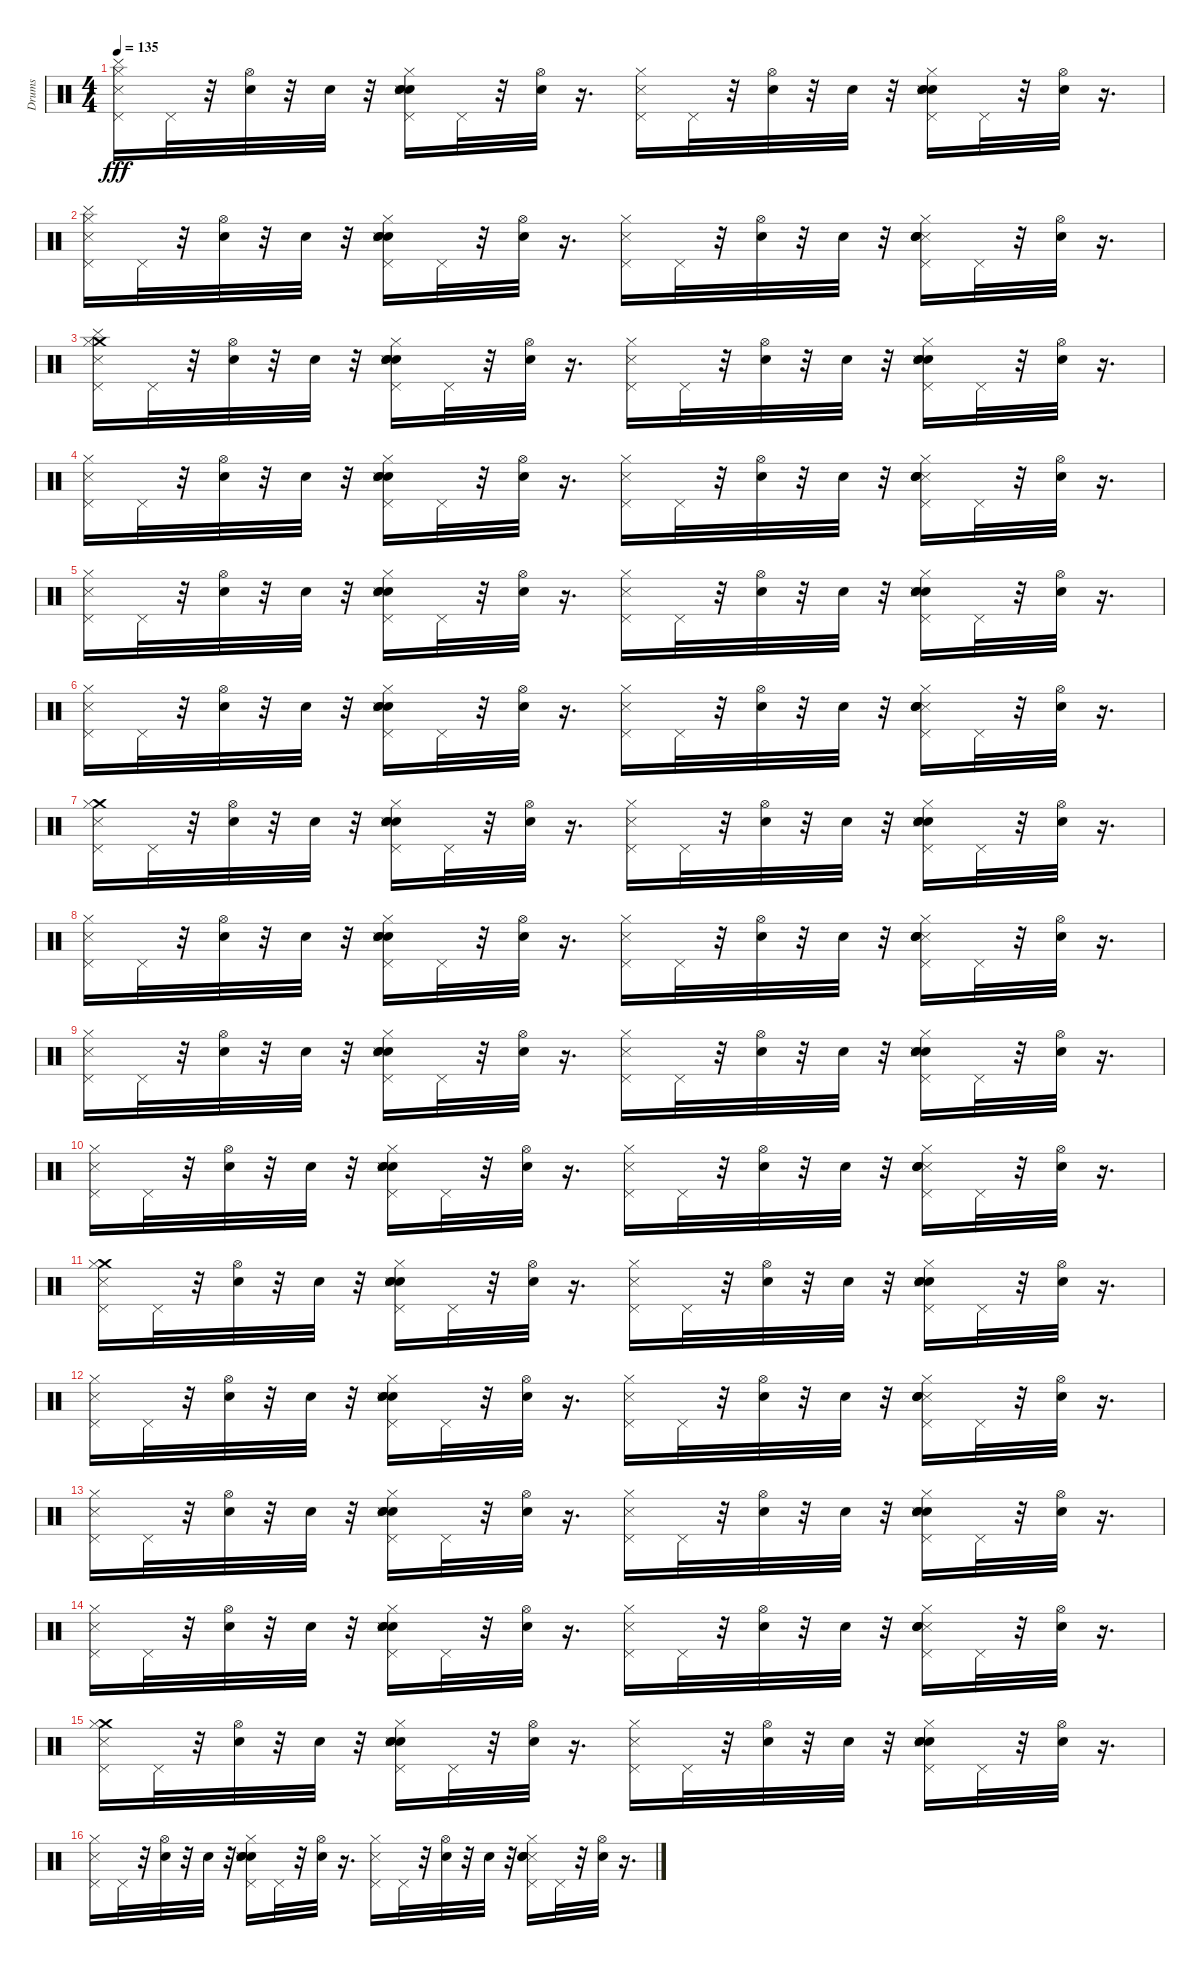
\track ("Drums" "Drums") {instrument percussion}
\staff {score}
\articulation defaults
\ts (4 4)
\tempo 135
\clef neutral
\ks c
("Cymbal (hit)" "Pedal Hi-Hat (hit)" "Hi-Hat (closed)" "Metronome (hit)").16{dy fff} "Pedal Hi-Hat (hit)".32 r.32 ("Snare (hit)" "Hi-Hat (open)").32 r.32 "Snare (hit)".32 r.32 ("Electric Snare (hit)" "Snare (hit)" "Metronome (hit)" "Hand Clap (hit)" "Pedal Hi-Hat (hit)" "Hi-Hat (closed)").16 "Pedal Hi-Hat (hit)".32 r.32 ("Snare (hit)" "Hi-Hat (open)").32 r.16{d} ("Pedal Hi-Hat (hit)" "Hi-Hat (closed)" "Metronome (hit)").16 "Pedal Hi-Hat (hit)".32 r.32 ("Snare (hit)" "Hi-Hat (open)").32 r.32 "Snare (hit)".32 r.32 ("Hi-Hat (closed)" "Snare (hit)" "Electric Snare (hit)" "Pedal Hi-Hat (hit)" "Metronome (hit)" "Hand Clap (hit)").16 "Pedal Hi-Hat (hit)".32 r.32 ("Hi-Hat (open)" "Snare (hit)").32 r.16{d} |
("Cymbal (hit)" "Metronome (hit)" "Pedal Hi-Hat (hit)" "Hi-Hat (closed)").16 "Pedal Hi-Hat (hit)".32 r.32 ("Hi-Hat (open)" "Snare (hit)").32 r.32 "Snare (hit)".32 r.32 ("Electric Snare (hit)" "Hand Clap (hit)" "Hi-Hat (closed)" "Snare (hit)" "Metronome (hit)" "Pedal Hi-Hat (hit)").16 "Pedal Hi-Hat (hit)".32 r.32 ("Hi-Hat (open)" "Snare (hit)").32 r.16{d} ("Metronome (hit)" "Pedal Hi-Hat (hit)" "Hi-Hat (closed)").16 "Pedal Hi-Hat (hit)".32 r.32 ("Hi-Hat (open)" "Snare (hit)").32 r.32 "Snare (hit)".32 r.32 ("Metronome (hit)" "Hi-Hat (closed)" "Hand Clap (hit)" "Pedal Hi-Hat (hit)" "Snare (hit)" "Electric Snare (hit)").16 "Pedal Hi-Hat (hit)".32 r.32 ("Hi-Hat (open)" "Snare (hit)").32 r.16{d} |
("Cymbal (hit)" "Crash medium (hit)" "Pedal Hi-Hat (hit)" "Hi-Hat (closed)" "Metronome (hit)").16 "Pedal Hi-Hat (hit)".32 r.32 ("Hi-Hat (open)" "Snare (hit)").32 r.32 "Snare (hit)".32 r.32 ("Electric Snare (hit)" "Hand Clap (hit)" "Hi-Hat (closed)" "Snare (hit)" "Metronome (hit)" "Pedal Hi-Hat (hit)").16 "Pedal Hi-Hat (hit)".32 r.32 ("Snare (hit)" "Hi-Hat (open)").32 r.16{d} ("Pedal Hi-Hat (hit)" "Hi-Hat (closed)" "Metronome (hit)").16 "Pedal Hi-Hat (hit)".32 r.32 ("Snare (hit)" "Hi-Hat (open)").32 r.32 "Snare (hit)".32 r.32 ("Hi-Hat (closed)" "Electric Snare (hit)" "Snare (hit)" "Pedal Hi-Hat (hit)" "Metronome (hit)" "Hand Clap (hit)").16 "Pedal Hi-Hat (hit)".32 r.32 ("Snare (hit)" "Hi-Hat (open)").32 r.16{d} |
("Pedal Hi-Hat (hit)" "Hi-Hat (closed)" "Metronome (hit)").16 "Pedal Hi-Hat (hit)".32 r.32 ("Hi-Hat (open)" "Snare (hit)").32 r.32 "Snare (hit)".32 r.32 ("Hand Clap (hit)" "Snare (hit)" "Hi-Hat (closed)" "Pedal Hi-Hat (hit)" "Metronome (hit)" "Electric Snare (hit)").16 "Pedal Hi-Hat (hit)".32 r.32 ("Hi-Hat (open)" "Snare (hit)").32 r.16{d} ("Metronome (hit)" "Pedal Hi-Hat (hit)" "Hi-Hat (closed)").16 "Pedal Hi-Hat (hit)".32 r.32 ("Hi-Hat (open)" "Snare (hit)").32 r.32 "Snare (hit)".32 r.32 ("Metronome (hit)" "Hi-Hat (closed)" "Hand Clap (hit)" "Pedal Hi-Hat (hit)" "Snare (hit)" "Electric Snare (hit)").16 "Pedal Hi-Hat (hit)".32 r.32 ("Hi-Hat (open)" "Snare (hit)").32 r.16{d} |
("Pedal Hi-Hat (hit)" "Hi-Hat (closed)" "Metronome (hit)").16 "Pedal Hi-Hat (hit)".32 r.32 ("Snare (hit)" "Hi-Hat (open)").32 r.32 "Snare (hit)".32 r.32 ("Electric Snare (hit)" "Snare (hit)" "Metronome (hit)" "Hand Clap (hit)" "Pedal Hi-Hat (hit)" "Hi-Hat (closed)").16 "Pedal Hi-Hat (hit)".32 r.32 ("Snare (hit)" "Hi-Hat (open)").32 r.16{d} ("Pedal Hi-Hat (hit)" "Hi-Hat (closed)" "Metronome (hit)").16 "Pedal Hi-Hat (hit)".32 r.32 ("Snare (hit)" "Hi-Hat (open)").32 r.32 "Snare (hit)".32 r.32 ("Hi-Hat (closed)" "Snare (hit)" "Electric Snare (hit)" "Pedal Hi-Hat (hit)" "Metronome (hit)" "Hand Clap (hit)").16 "Pedal Hi-Hat (hit)".32 r.32 ("Hi-Hat (open)" "Snare (hit)").32 r.16{d} |
("Metronome (hit)" "Pedal Hi-Hat (hit)" "Hi-Hat (closed)").16 "Pedal Hi-Hat (hit)".32 r.32 ("Hi-Hat (open)" "Snare (hit)").32 r.32 "Snare (hit)".32 r.32 ("Electric Snare (hit)" "Hand Clap (hit)" "Hi-Hat (closed)" "Snare (hit)" "Metronome (hit)" "Pedal Hi-Hat (hit)").16 "Pedal Hi-Hat (hit)".32 r.32 ("Hi-Hat (open)" "Snare (hit)").32 r.16{d} ("Metronome (hit)" "Pedal Hi-Hat (hit)" "Hi-Hat (closed)").16 "Pedal Hi-Hat (hit)".32 r.32 ("Hi-Hat (open)" "Snare (hit)").32 r.32 "Snare (hit)".32 r.32 ("Metronome (hit)" "Hi-Hat (closed)" "Hand Clap (hit)" "Pedal Hi-Hat (hit)" "Snare (hit)" "Electric Snare (hit)").16 "Pedal Hi-Hat (hit)".32 r.32 ("Hi-Hat (open)" "Snare (hit)").32 r.16{d} |
("Crash medium (hit)" "Pedal Hi-Hat (hit)" "Hi-Hat (closed)" "Metronome (hit)").16 "Pedal Hi-Hat (hit)".32 r.32 ("Hi-Hat (open)" "Snare (hit)").32 r.32 "Snare (hit)".32 r.32 ("Electric Snare (hit)" "Hand Clap (hit)" "Hi-Hat (closed)" "Snare (hit)" "Metronome (hit)" "Pedal Hi-Hat (hit)").16 "Pedal Hi-Hat (hit)".32 r.32 ("Snare (hit)" "Hi-Hat (open)").32 r.16{d} ("Pedal Hi-Hat (hit)" "Hi-Hat (closed)" "Metronome (hit)").16 "Pedal Hi-Hat (hit)".32 r.32 ("Snare (hit)" "Hi-Hat (open)").32 r.32 "Snare (hit)".32 r.32 ("Hi-Hat (closed)" "Electric Snare (hit)" "Snare (hit)" "Pedal Hi-Hat (hit)" "Metronome (hit)" "Hand Clap (hit)").16 "Pedal Hi-Hat (hit)".32 r.32 ("Snare (hit)" "Hi-Hat (open)").32 r.16{d} |
("Pedal Hi-Hat (hit)" "Hi-Hat (closed)" "Metronome (hit)").16 "Pedal Hi-Hat (hit)".32 r.32 ("Hi-Hat (open)" "Snare (hit)").32 r.32 "Snare (hit)".32 r.32 ("Hand Clap (hit)" "Snare (hit)" "Hi-Hat (closed)" "Pedal Hi-Hat (hit)" "Metronome (hit)" "Electric Snare (hit)").16 "Pedal Hi-Hat (hit)".32 r.32 ("Hi-Hat (open)" "Snare (hit)").32 r.16{d} ("Metronome (hit)" "Pedal Hi-Hat (hit)" "Hi-Hat (closed)").16 "Pedal Hi-Hat (hit)".32 r.32 ("Hi-Hat (open)" "Snare (hit)").32 r.32 "Snare (hit)".32 r.32 ("Metronome (hit)" "Hi-Hat (closed)" "Hand Clap (hit)" "Pedal Hi-Hat (hit)" "Snare (hit)" "Electric Snare (hit)").16 "Pedal Hi-Hat (hit)".32 r.32 ("Hi-Hat (open)" "Snare (hit)").32 r.16{d} |
("Pedal Hi-Hat (hit)" "Hi-Hat (closed)" "Metronome (hit)").16 "Pedal Hi-Hat (hit)".32 r.32 ("Snare (hit)" "Hi-Hat (open)").32 r.32 "Snare (hit)".32 r.32 ("Electric Snare (hit)" "Snare (hit)" "Metronome (hit)" "Hand Clap (hit)" "Pedal Hi-Hat (hit)" "Hi-Hat (closed)").16 "Pedal Hi-Hat (hit)".32 r.32 ("Snare (hit)" "Hi-Hat (open)").32 r.16{d} ("Pedal Hi-Hat (hit)" "Hi-Hat (closed)" "Metronome (hit)").16 "Pedal Hi-Hat (hit)".32 r.32 ("Snare (hit)" "Hi-Hat (open)").32 r.32 "Snare (hit)".32 r.32 ("Hi-Hat (closed)" "Snare (hit)" "Electric Snare (hit)" "Pedal Hi-Hat (hit)" "Metronome (hit)" "Hand Clap (hit)").16 "Pedal Hi-Hat (hit)".32 r.32 ("Hi-Hat (open)" "Snare (hit)").32 r.16{d} |
("Metronome (hit)" "Pedal Hi-Hat (hit)" "Hi-Hat (closed)").16 "Pedal Hi-Hat (hit)".32 r.32 ("Hi-Hat (open)" "Snare (hit)").32 r.32 "Snare (hit)".32 r.32 ("Electric Snare (hit)" "Hand Clap (hit)" "Hi-Hat (closed)" "Snare (hit)" "Metronome (hit)" "Pedal Hi-Hat (hit)").16 "Pedal Hi-Hat (hit)".32 r.32 ("Hi-Hat (open)" "Snare (hit)").32 r.16{d} ("Metronome (hit)" "Pedal Hi-Hat (hit)" "Hi-Hat (closed)").16 "Pedal Hi-Hat (hit)".32 r.32 ("Hi-Hat (open)" "Snare (hit)").32 r.32 "Snare (hit)".32 r.32 ("Metronome (hit)" "Hi-Hat (closed)" "Hand Clap (hit)" "Pedal Hi-Hat (hit)" "Snare (hit)" "Electric Snare (hit)").16 "Pedal Hi-Hat (hit)".32 r.32 ("Hi-Hat (open)" "Snare (hit)").32 r.16{d} |
("Crash medium (hit)" "Pedal Hi-Hat (hit)" "Hi-Hat (closed)" "Metronome (hit)").16 "Pedal Hi-Hat (hit)".32 r.32 ("Hi-Hat (open)" "Snare (hit)").32 r.32 "Snare (hit)".32 r.32 ("Electric Snare (hit)" "Hand Clap (hit)" "Hi-Hat (closed)" "Snare (hit)" "Metronome (hit)" "Pedal Hi-Hat (hit)").16 "Pedal Hi-Hat (hit)".32 r.32 ("Snare (hit)" "Hi-Hat (open)").32 r.16{d} ("Pedal Hi-Hat (hit)" "Hi-Hat (closed)" "Metronome (hit)").16 "Pedal Hi-Hat (hit)".32 r.32 ("Snare (hit)" "Hi-Hat (open)").32 r.32 "Snare (hit)".32 r.32 ("Hi-Hat (closed)" "Electric Snare (hit)" "Snare (hit)" "Pedal Hi-Hat (hit)" "Metronome (hit)" "Hand Clap (hit)").16 "Pedal Hi-Hat (hit)".32 r.32 ("Snare (hit)" "Hi-Hat (open)").32 r.16{d} |
("Pedal Hi-Hat (hit)" "Hi-Hat (closed)" "Metronome (hit)").16 "Pedal Hi-Hat (hit)".32 r.32 ("Hi-Hat (open)" "Snare (hit)").32 r.32 "Snare (hit)".32 r.32 ("Hand Clap (hit)" "Snare (hit)" "Hi-Hat (closed)" "Pedal Hi-Hat (hit)" "Metronome (hit)" "Electric Snare (hit)").16 "Pedal Hi-Hat (hit)".32 r.32 ("Hi-Hat (open)" "Snare (hit)").32 r.16{d} ("Metronome (hit)" "Pedal Hi-Hat (hit)" "Hi-Hat (closed)").16 "Pedal Hi-Hat (hit)".32 r.32 ("Hi-Hat (open)" "Snare (hit)").32 r.32 "Snare (hit)".32 r.32 ("Metronome (hit)" "Hi-Hat (closed)" "Hand Clap (hit)" "Pedal Hi-Hat (hit)" "Snare (hit)" "Electric Snare (hit)").16 "Pedal Hi-Hat (hit)".32 r.32 ("Hi-Hat (open)" "Snare (hit)").32 r.16{d} |
("Pedal Hi-Hat (hit)" "Hi-Hat (closed)" "Metronome (hit)").16 "Pedal Hi-Hat (hit)".32 r.32 ("Snare (hit)" "Hi-Hat (open)").32 r.32 "Snare (hit)".32 r.32 ("Electric Snare (hit)" "Snare (hit)" "Metronome (hit)" "Hand Clap (hit)" "Pedal Hi-Hat (hit)" "Hi-Hat (closed)").16 "Pedal Hi-Hat (hit)".32 r.32 ("Snare (hit)" "Hi-Hat (open)").32 r.16{d} ("Pedal Hi-Hat (hit)" "Hi-Hat (closed)" "Metronome (hit)").16 "Pedal Hi-Hat (hit)".32 r.32 ("Snare (hit)" "Hi-Hat (open)").32 r.32 "Snare (hit)".32 r.32 ("Hi-Hat (closed)" "Snare (hit)" "Electric Snare (hit)" "Pedal Hi-Hat (hit)" "Metronome (hit)" "Hand Clap (hit)").16 "Pedal Hi-Hat (hit)".32 r.32 ("Hi-Hat (open)" "Snare (hit)").32 r.16{d} |
("Metronome (hit)" "Pedal Hi-Hat (hit)" "Hi-Hat (closed)").16 "Pedal Hi-Hat (hit)".32 r.32 ("Hi-Hat (open)" "Snare (hit)").32 r.32 "Snare (hit)".32 r.32 ("Electric Snare (hit)" "Hand Clap (hit)" "Hi-Hat (closed)" "Snare (hit)" "Metronome (hit)" "Pedal Hi-Hat (hit)").16 "Pedal Hi-Hat (hit)".32 r.32 ("Hi-Hat (open)" "Snare (hit)").32 r.16{d} ("Metronome (hit)" "Pedal Hi-Hat (hit)" "Hi-Hat (closed)").16 "Pedal Hi-Hat (hit)".32 r.32 ("Hi-Hat (open)" "Snare (hit)").32 r.32 "Snare (hit)".32 r.32 ("Metronome (hit)" "Hi-Hat (closed)" "Hand Clap (hit)" "Pedal Hi-Hat (hit)" "Snare (hit)" "Electric Snare (hit)").16 "Pedal Hi-Hat (hit)".32 r.32 ("Hi-Hat (open)" "Snare (hit)").32 r.16{d} |
("Crash medium (hit)" "Pedal Hi-Hat (hit)" "Hi-Hat (closed)" "Metronome (hit)").16 "Pedal Hi-Hat (hit)".32 r.32 ("Hi-Hat (open)" "Snare (hit)").32 r.32 "Snare (hit)".32 r.32 ("Snare (hit)" "Hand Clap (hit)" "Hi-Hat (closed)" "Electric Snare (hit)" "Metronome (hit)" "Pedal Hi-Hat (hit)").16 "Pedal Hi-Hat (hit)".32 r.32 ("Snare (hit)" "Hi-Hat (open)").32 r.16{d} ("Pedal Hi-Hat (hit)" "Metronome (hit)" "Hi-Hat (closed)").16 "Pedal Hi-Hat (hit)".32 r.32 ("Snare (hit)" "Hi-Hat (open)").32 r.32 "Snare (hit)".32 r.32 ("Pedal Hi-Hat (hit)" "Hi-Hat (closed)" "Electric Snare (hit)" "Snare (hit)" "Hand Clap (hit)" "Metronome (hit)").16 "Pedal Hi-Hat (hit)".32 r.32 ("Hi-Hat (open)" "Snare (hit)").32 r.16{d} |
("Metronome (hit)" "Pedal Hi-Hat (hit)" "Hi-Hat (closed)").16 "Pedal Hi-Hat (hit)".32 r.32 ("Hi-Hat (open)" "Snare (hit)").32 r.32 "Snare (hit)".32 r.32 ("Hand Clap (hit)" "Hi-Hat (closed)" "Metronome (hit)" "Pedal Hi-Hat (hit)" "Snare (hit)" "Electric Snare (hit)").16 "Pedal Hi-Hat (hit)".32 r.32 ("Snare (hit)" "Hi-Hat (open)").32 r.16{d} ("Hi-Hat (closed)" "Pedal Hi-Hat (hit)" "Metronome (hit)").16 "Pedal Hi-Hat (hit)".32 r.32 ("Snare (hit)" "Hi-Hat (open)").32 r.32 "Snare (hit)".32 r.32 ("Metronome (hit)" "Pedal Hi-Hat (hit)" "Hand Clap (hit)" "Hi-Hat (closed)" "Snare (hit)" "Electric Snare (hit)").16 "Pedal Hi-Hat (hit)".32 r.32 ("Snare (hit)" "Hi-Hat (open)").32 r.16{d}
